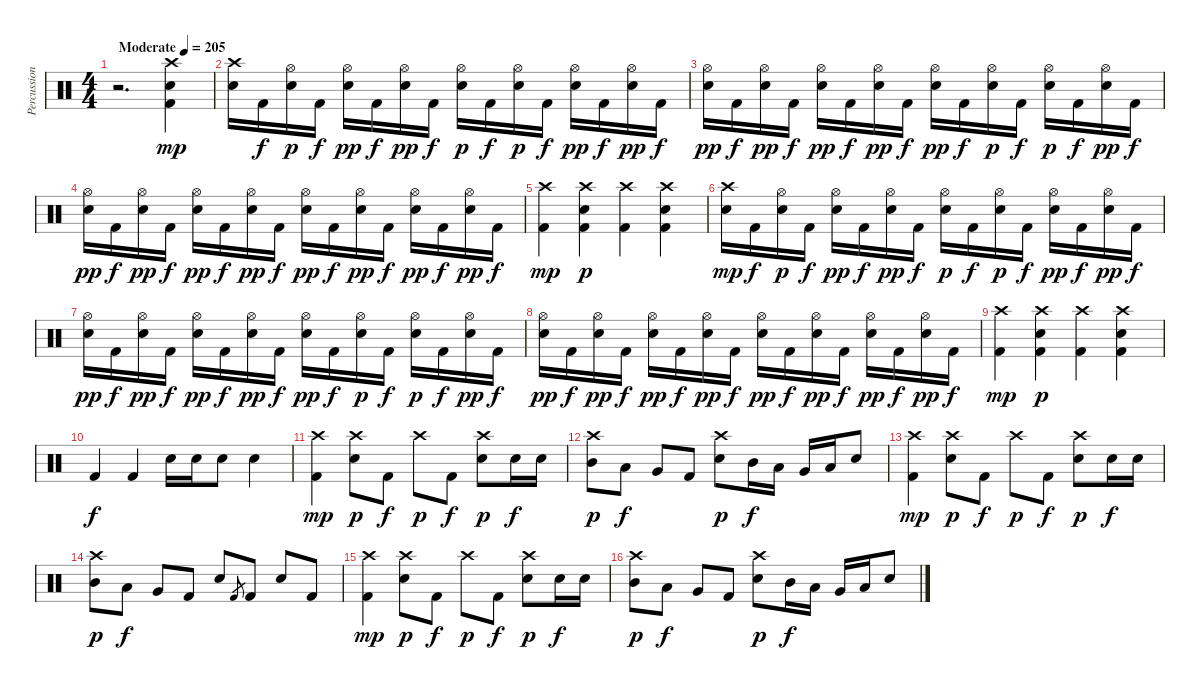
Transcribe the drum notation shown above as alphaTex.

\track ("Percussion" "Percussion") {instrument percussion}
\staff {score}
\articulation defaults
\ts (4 4)
\tempo (205 "Moderate")
\clef neutral
\ks c
r.2{d dy mp} ("Crash high (hit)" "Electric Snare (hit)" "Kick (hit) 2").4 |
("Crash high (hit)" "Electric Snare (hit)").16 "Kick (hit) 2".16{dy f} ("Hi-Hat (open)" "Electric Snare (hit)").16{dy p} "Kick (hit) 2".16{dy f} ("Hi-Hat (open)" "Electric Snare (hit)").16{dy pp} "Kick (hit) 2".16{dy f} ("Hi-Hat (open)" "Electric Snare (hit)").16{dy pp} "Kick (hit) 2".16{dy f} ("Hi-Hat (open)" "Electric Snare (hit)").16{dy p} "Kick (hit) 2".16{dy f} ("Hi-Hat (open)" "Electric Snare (hit)").16{dy p} "Kick (hit) 2".16{dy f} ("Hi-Hat (open)" "Electric Snare (hit)").16{dy pp} "Kick (hit) 2".16{dy f} ("Hi-Hat (open)" "Electric Snare (hit)").16{dy pp} "Kick (hit) 2".16{dy f} |
("Hi-Hat (open)" "Electric Snare (hit)").16{dy pp} "Kick (hit) 2".16{dy f} ("Hi-Hat (open)" "Electric Snare (hit)").16{dy pp} "Kick (hit) 2".16{dy f} ("Hi-Hat (open)" "Electric Snare (hit)").16{dy pp} "Kick (hit) 2".16{dy f} ("Hi-Hat (open)" "Electric Snare (hit)").16{dy pp} "Kick (hit) 2".16{dy f} ("Hi-Hat (open)" "Electric Snare (hit)").16{dy pp} "Kick (hit) 2".16{dy f} ("Hi-Hat (open)" "Electric Snare (hit)").16{dy p} "Kick (hit) 2".16{dy f} ("Hi-Hat (open)" "Electric Snare (hit)").16{dy p} "Kick (hit) 2".16{dy f} ("Hi-Hat (open)" "Electric Snare (hit)").16{dy pp} "Kick (hit) 2".16{dy f} |
("Hi-Hat (open)" "Electric Snare (hit)").16{dy pp} "Kick (hit) 2".16{dy f} ("Hi-Hat (open)" "Electric Snare (hit)").16{dy pp} "Kick (hit) 2".16{dy f} ("Hi-Hat (open)" "Electric Snare (hit)").16{dy pp} "Kick (hit) 2".16{dy f} ("Hi-Hat (open)" "Electric Snare (hit)").16{dy pp} "Kick (hit) 2".16{dy f} ("Hi-Hat (open)" "Electric Snare (hit)").16{dy pp} "Kick (hit) 2".16{dy f} ("Hi-Hat (open)" "Electric Snare (hit)").16{dy pp} "Kick (hit) 2".16{dy f} ("Hi-Hat (open)" "Electric Snare (hit)").16{dy pp} "Kick (hit) 2".16{dy f} ("Hi-Hat (open)" "Electric Snare (hit)").16{dy pp} "Kick (hit) 2".16{dy f} |
("Crash high (hit)" "Kick (hit) 2").4{dy mp} ("Crash high (hit)" "Electric Snare (hit)" "Kick (hit) 2").4{dy p} ("Crash high (hit)" "Kick (hit) 2").4 ("Crash high (hit)" "Electric Snare (hit)" "Kick (hit) 2").4 |
("Crash high (hit)" "Electric Snare (hit)").16{dy mp} "Kick (hit) 2".16{dy f} ("Hi-Hat (open)" "Electric Snare (hit)").16{dy p} "Kick (hit) 2".16{dy f} ("Hi-Hat (open)" "Electric Snare (hit)").16{dy pp} "Kick (hit) 2".16{dy f} ("Hi-Hat (open)" "Electric Snare (hit)").16{dy pp} "Kick (hit) 2".16{dy f} ("Hi-Hat (open)" "Electric Snare (hit)").16{dy p} "Kick (hit) 2".16{dy f} ("Hi-Hat (open)" "Electric Snare (hit)").16{dy p} "Kick (hit) 2".16{dy f} ("Hi-Hat (open)" "Electric Snare (hit)").16{dy pp} "Kick (hit) 2".16{dy f} ("Hi-Hat (open)" "Electric Snare (hit)").16{dy pp} "Kick (hit) 2".16{dy f} |
("Hi-Hat (open)" "Electric Snare (hit)").16{dy pp} "Kick (hit) 2".16{dy f} ("Hi-Hat (open)" "Electric Snare (hit)").16{dy pp} "Kick (hit) 2".16{dy f} ("Hi-Hat (open)" "Electric Snare (hit)").16{dy pp} "Kick (hit) 2".16{dy f} ("Hi-Hat (open)" "Electric Snare (hit)").16{dy pp} "Kick (hit) 2".16{dy f} ("Hi-Hat (open)" "Electric Snare (hit)").16{dy pp} "Kick (hit) 2".16{dy f} ("Hi-Hat (open)" "Electric Snare (hit)").16{dy p} "Kick (hit) 2".16{dy f} ("Hi-Hat (open)" "Electric Snare (hit)").16{dy p} "Kick (hit) 2".16{dy f} ("Hi-Hat (open)" "Electric Snare (hit)").16{dy pp} "Kick (hit) 2".16{dy f} |
("Hi-Hat (open)" "Electric Snare (hit)").16{dy pp} "Kick (hit) 2".16{dy f} ("Hi-Hat (open)" "Electric Snare (hit)").16{dy pp} "Kick (hit) 2".16{dy f} ("Hi-Hat (open)" "Electric Snare (hit)").16{dy pp} "Kick (hit) 2".16{dy f} ("Hi-Hat (open)" "Electric Snare (hit)").16{dy pp} "Kick (hit) 2".16{dy f} ("Hi-Hat (open)" "Electric Snare (hit)").16{dy pp} "Kick (hit) 2".16{dy f} ("Hi-Hat (open)" "Electric Snare (hit)").16{dy pp} "Kick (hit) 2".16{dy f} ("Hi-Hat (open)" "Electric Snare (hit)").16{dy pp} "Kick (hit) 2".16{dy f} ("Hi-Hat (open)" "Electric Snare (hit)").16{dy pp} "Kick (hit) 2".16{dy f} |
("Crash high (hit)" "Kick (hit) 2").4{dy mp} ("Crash high (hit)" "Electric Snare (hit)" "Kick (hit) 2").4{dy p} ("Crash high (hit)" "Kick (hit) 2").4 ("Crash high (hit)" "Electric Snare (hit)" "Kick (hit) 2").4 |
"Kick (hit) 2".4{dy f} "Kick (hit) 2".4 "Electric Snare (hit)".16 "Electric Snare (hit)".16 "Electric Snare (hit)".8 "Electric Snare (hit)".4 |
("Crash high (hit)" "Kick (hit) 2").4{dy mp} ("Crash high (hit)" "Electric Snare (hit)").8{dy p} "Kick (hit) 2".8{dy f} "Crash high (hit)".8{dy p} "Kick (hit) 2".8{dy f} ("Crash high (hit)" "Electric Snare (hit)").8{dy p} "Electric Snare (hit)".16{dy f} "Electric Snare (hit)".16 |
("Crash high (hit)" "Mid Tom (hit)").8{dy p} "Low Tom (hit)".8{dy f} "Very Low Tom (hit)".8 "Kick (hit) 2".8 ("Crash high (hit)" "Electric Snare (hit)").8{dy p} "Mid Tom (hit)".16{dy f} "Low Tom (hit)".16 "Very Low Tom (hit)".16 "Low Floor Tom (hit)".16 "Electric Snare (hit)".8 |
("Crash high (hit)" "Kick (hit) 2").4{dy mp} ("Crash high (hit)" "Electric Snare (hit)").8{dy p} "Kick (hit) 2".8{dy f} "Crash high (hit)".8{dy p} "Kick (hit) 2".8{dy f} ("Crash high (hit)" "Electric Snare (hit)").8{dy p} "Electric Snare (hit)".16{dy f} "Electric Snare (hit)".16 |
("Crash high (hit)" "Mid Tom (hit)").8{dy p} "Low Tom (hit)".8{dy f} "Very Low Tom (hit)".8 "Kick (hit) 2".8 "Electric Snare (hit)".8 "Kick (hit) 2".8{gr} "Kick (hit) 2".8 "Electric Snare (hit)".8 "Kick (hit) 2".8 |
("Crash high (hit)" "Kick (hit) 2").4{dy mp} ("Crash high (hit)" "Electric Snare (hit)").8{dy p} "Kick (hit) 2".8{dy f} "Crash high (hit)".8{dy p} "Kick (hit) 2".8{dy f} ("Crash high (hit)" "Electric Snare (hit)").8{dy p} "Electric Snare (hit)".16{dy f} "Electric Snare (hit)".16 |
("Crash high (hit)" "Mid Tom (hit)").8{dy p} "Low Tom (hit)".8{dy f} "Very Low Tom (hit)".8 "Kick (hit) 2".8 ("Crash high (hit)" "Electric Snare (hit)").8{dy p} "Mid Tom (hit)".16{dy f} "Low Tom (hit)".16 "Very Low Tom (hit)".16 "Low Floor Tom (hit)".16 "Electric Snare (hit)".8
